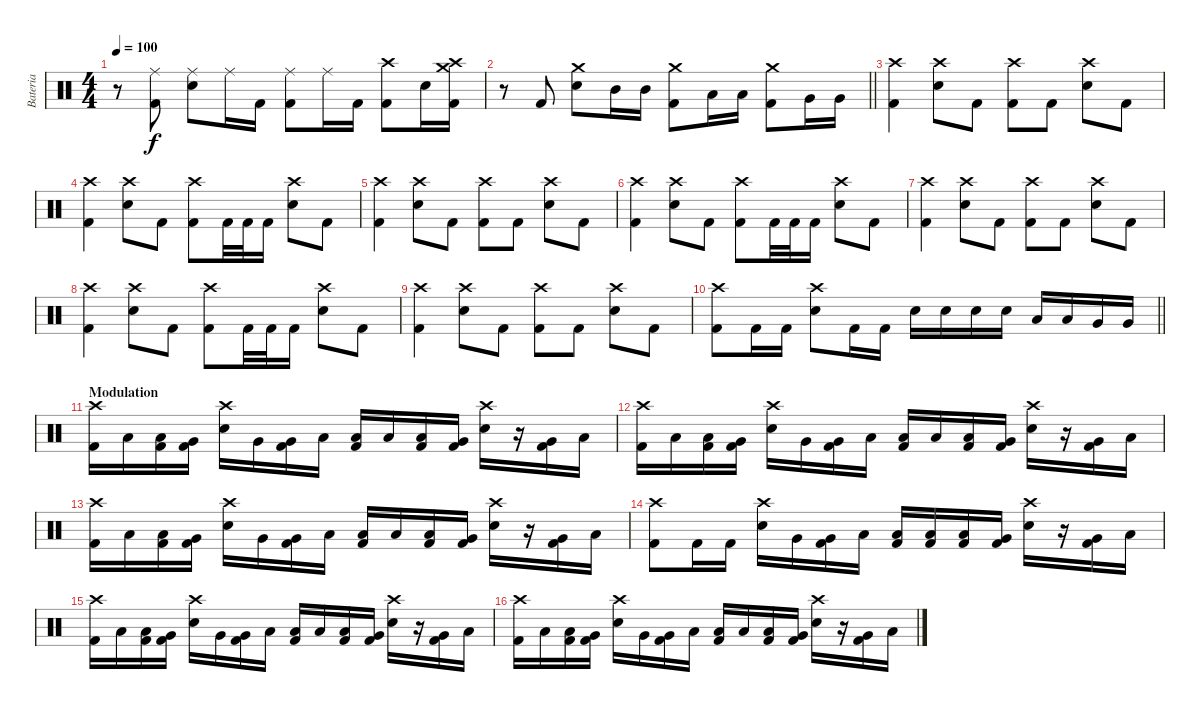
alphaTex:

\track ("Bateria" "Bateria") {instrument percussion}
\staff {score}
\articulation defaults
\ts (4 4)
\tempo 100
\clef neutral
\ks c
r.8{dy f} ("Ride (middle)" "Kick (hit) 2").8 ("Ride (middle)" "Snare (hit) 2").8 "Ride (middle)".16 "Kick (hit) 2".16 ("Ride (middle)" "Kick (hit) 2").8 "Ride (middle)".16 "Kick (hit) 2".16 ("Crash high (hit)" "Kick (hit) 2").8 "Snare (hit) 2".16 ("Crash high (hit)" "Crash medium (hit)" "Kick (hit) 2").16 |
\barLineRight lightlight
r.8 "Kick (hit) 2".8 ("Crash medium (hit)" "Snare (hit) 2").8 "Mid Tom (hit)".16 "Mid Tom (hit)".16 ("Crash medium (hit)" "Kick (hit) 2").8 "Low Tom (hit)".16 "Low Tom (hit)".16 ("Crash medium (hit)" "Kick (hit) 2").8 "Very Low Tom (hit)".16 "Very Low Tom (hit)".16 |
("Crash high (hit)" "Kick (hit) 2").4 ("Crash high (hit)" "Snare (hit) 2").8 "Kick (hit) 2".8 ("Crash high (hit)" "Kick (hit) 2").8 "Kick (hit) 2".8 ("Crash high (hit)" "Snare (hit) 2").8 "Kick (hit) 2".8 |
("Crash high (hit)" "Kick (hit) 2").4 ("Crash high (hit)" "Snare (hit) 2").8 "Kick (hit) 2".8 ("Crash high (hit)" "Kick (hit) 2").8 "Kick (hit) 2".32 "Kick (hit) 2".32 "Kick (hit) 2".16 ("Crash high (hit)" "Snare (hit) 2").8 "Kick (hit) 2".8 |
("Crash high (hit)" "Kick (hit) 2").4 ("Crash high (hit)" "Snare (hit) 2").8 "Kick (hit) 2".8 ("Crash high (hit)" "Kick (hit) 2").8 "Kick (hit) 2".8 ("Crash high (hit)" "Snare (hit) 2").8 "Kick (hit) 2".8 |
("Crash high (hit)" "Kick (hit) 2").4 ("Crash high (hit)" "Snare (hit) 2").8 "Kick (hit) 2".8 ("Crash high (hit)" "Kick (hit) 2").8 "Kick (hit) 2".32 "Kick (hit) 2".32 "Kick (hit) 2".16 ("Crash high (hit)" "Snare (hit) 2").8 "Kick (hit) 2".8 |
("Crash high (hit)" "Kick (hit) 2").4 ("Crash high (hit)" "Snare (hit) 2").8 "Kick (hit) 2".8 ("Crash high (hit)" "Kick (hit) 2").8 "Kick (hit) 2".8 ("Crash high (hit)" "Snare (hit) 2").8 "Kick (hit) 2".8 |
("Crash high (hit)" "Kick (hit) 2").4 ("Crash high (hit)" "Snare (hit) 2").8 "Kick (hit) 2".8 ("Crash high (hit)" "Kick (hit) 2").8 "Kick (hit) 2".32 "Kick (hit) 2".32 "Kick (hit) 2".16 ("Crash high (hit)" "Snare (hit) 2").8 "Kick (hit) 2".8 |
("Crash high (hit)" "Kick (hit) 2").4 ("Crash high (hit)" "Snare (hit) 2").8 "Kick (hit) 2".8 ("Crash high (hit)" "Kick (hit) 2").8 "Kick (hit) 2".8 ("Crash high (hit)" "Snare (hit) 2").8 "Kick (hit) 2".8 |
\barLineRight lightlight
("Crash high (hit)" "Kick (hit) 2").8 "Kick (hit) 2".16 "Kick (hit) 2".16 ("Crash high (hit)" "Snare (hit) 2").8 "Kick (hit) 2".16 "Kick (hit) 2".16 "Snare (hit) 2".16 "Snare (hit) 2".16 "Snare (hit) 2".16 "Snare (hit) 2".16 "Low Tom (hit)".16 "Low Tom (hit)".16 "Very Low Tom (hit)".16 "Very Low Tom (hit)".16 |
\section ("" "Modulation")
("Crash high (hit)" "Kick (hit) 2").16 "Low Tom (hit)".16 ("Low Tom (hit)" "Kick (hit) 2").16 ("Very Low Tom (hit)" "Kick (hit) 2").16 ("Crash high (hit)" "Snare (hit) 2").16 "Very Low Tom (hit)".16 ("Very Low Tom (hit)" "Kick (hit) 2").16 "Low Floor Tom (hit)".16 ("Low Floor Tom (hit)" "Kick (hit) 2").16 "Low Tom (hit)".16 ("Low Tom (hit)" "Kick (hit) 2").16 ("Very Low Tom (hit)" "Kick (hit) 2").16 ("Crash high (hit)" "Snare (hit) 2").16 r.16 ("Very Low Tom (hit)" "Kick (hit) 2").16 "Low Floor Tom (hit)".16 |
("Crash high (hit)" "Kick (hit) 2").16 "Low Tom (hit)".16 ("Low Tom (hit)" "Kick (hit) 2").16 ("Very Low Tom (hit)" "Kick (hit) 2").16 ("Crash high (hit)" "Snare (hit) 2").16 "Very Low Tom (hit)".16 ("Very Low Tom (hit)" "Kick (hit) 2").16 "Low Floor Tom (hit)".16 ("Low Floor Tom (hit)" "Kick (hit) 2").16 "Low Tom (hit)".16 ("Low Tom (hit)" "Kick (hit) 2").16 ("Very Low Tom (hit)" "Kick (hit) 2").16 ("Crash high (hit)" "Snare (hit) 2").16 r.16 ("Very Low Tom (hit)" "Kick (hit) 2").16 "Low Floor Tom (hit)".16 |
("Crash high (hit)" "Kick (hit) 2").16 "Low Tom (hit)".16 ("Low Tom (hit)" "Kick (hit) 2").16 ("Very Low Tom (hit)" "Kick (hit) 2").16 ("Crash high (hit)" "Snare (hit) 2").16 "Very Low Tom (hit)".16 ("Very Low Tom (hit)" "Kick (hit) 2").16 "Low Floor Tom (hit)".16 ("Low Floor Tom (hit)" "Kick (hit) 2").16 "Low Tom (hit)".16 ("Low Tom (hit)" "Kick (hit) 2").16 ("Very Low Tom (hit)" "Kick (hit) 2").16 ("Crash high (hit)" "Snare (hit) 2").16 r.16 ("Very Low Tom (hit)" "Kick (hit) 2").16 "Low Floor Tom (hit)".16 |
("Crash high (hit)" "Kick (hit) 2").8 "Kick (hit) 2".16 "Kick (hit) 2".16 ("Crash high (hit)" "Snare (hit) 2").16 "Very Low Tom (hit)".16 ("Very Low Tom (hit)" "Kick (hit) 2").16 "Low Floor Tom (hit)".16 ("Low Floor Tom (hit)" "Kick (hit) 2").16 ("Low Tom (hit)" "Kick (hit) 2").16 ("Low Tom (hit)" "Kick (hit) 2").16 ("Very Low Tom (hit)" "Kick (hit) 2").16 ("Crash high (hit)" "Snare (hit) 2").16 r.16 ("Very Low Tom (hit)" "Kick (hit) 2").16 "Low Floor Tom (hit)".16 |
("Crash high (hit)" "Kick (hit) 2").16 "Low Tom (hit)".16 ("Low Tom (hit)" "Kick (hit) 2").16 ("Very Low Tom (hit)" "Kick (hit) 2").16 ("Crash high (hit)" "Snare (hit) 2").16 "Very Low Tom (hit)".16 ("Very Low Tom (hit)" "Kick (hit) 2").16 "Low Floor Tom (hit)".16 ("Low Floor Tom (hit)" "Kick (hit) 2").16 "Low Tom (hit)".16 ("Low Tom (hit)" "Kick (hit) 2").16 ("Very Low Tom (hit)" "Kick (hit) 2").16 ("Crash high (hit)" "Snare (hit) 2").16 r.16 ("Very Low Tom (hit)" "Kick (hit) 2").16 "Low Floor Tom (hit)".16 |
("Crash high (hit)" "Kick (hit) 2").16 "Low Tom (hit)".16 ("Low Tom (hit)" "Kick (hit) 2").16 ("Very Low Tom (hit)" "Kick (hit) 2").16 ("Crash high (hit)" "Snare (hit) 2").16 "Very Low Tom (hit)".16 ("Very Low Tom (hit)" "Kick (hit) 2").16 "Low Floor Tom (hit)".16 ("Low Floor Tom (hit)" "Kick (hit) 2").16 "Low Tom (hit)".16 ("Low Tom (hit)" "Kick (hit) 2").16 ("Very Low Tom (hit)" "Kick (hit) 2").16 ("Crash high (hit)" "Snare (hit) 2").16 r.16 ("Very Low Tom (hit)" "Kick (hit) 2").16 "Low Floor Tom (hit)".16
